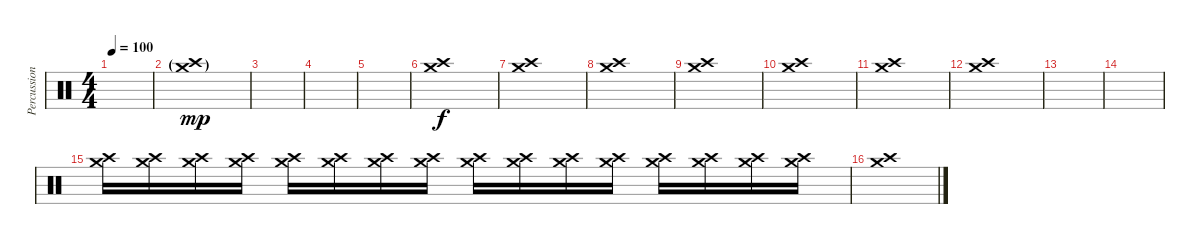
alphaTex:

\track ("Percussion" "Percussion") {instrument percussion}
\staff {score}
\articulation defaults
\ts (4 4)
\tempo 100
\clef neutral
\ks c
|
("Crash medium (hit)"{g} "Crash high (hit)"{g}).1{dy mp} |
|
|
|
("Crash high (hit)" "Crash medium (hit)").1{dy f} |
("Crash high (hit)" "Crash medium (hit)").1 |
("Crash high (hit)" "Crash medium (hit)").1 |
("Crash high (hit)" "Crash medium (hit)").1 |
("Crash high (hit)" "Crash medium (hit)").1 |
("Crash high (hit)" "Crash medium (hit)").1 |
("Crash high (hit)" "Crash medium (hit)").1 |
|
|
("Crash medium (hit)" "Crash high (hit)").16{volume 13} ("Crash medium (hit)" "Crash high (hit)").16 ("Crash medium (hit)" "Crash high (hit)").16 ("Crash medium (hit)" "Crash high (hit)").16 ("Crash medium (hit)" "Crash high (hit)").16 ("Crash medium (hit)" "Crash high (hit)").16 ("Crash medium (hit)" "Crash high (hit)").16 ("Crash medium (hit)" "Crash high (hit)").16 ("Crash medium (hit)" "Crash high (hit)").16 ("Crash medium (hit)" "Crash high (hit)").16 ("Crash medium (hit)" "Crash high (hit)").16 ("Crash medium (hit)" "Crash high (hit)").16 ("Crash medium (hit)" "Crash high (hit)").16 ("Crash medium (hit)" "Crash high (hit)").16 ("Crash medium (hit)" "Crash high (hit)").16 ("Crash medium (hit)" "Crash high (hit)").16 |
("Crash medium (hit)" "Crash high (hit)").1
